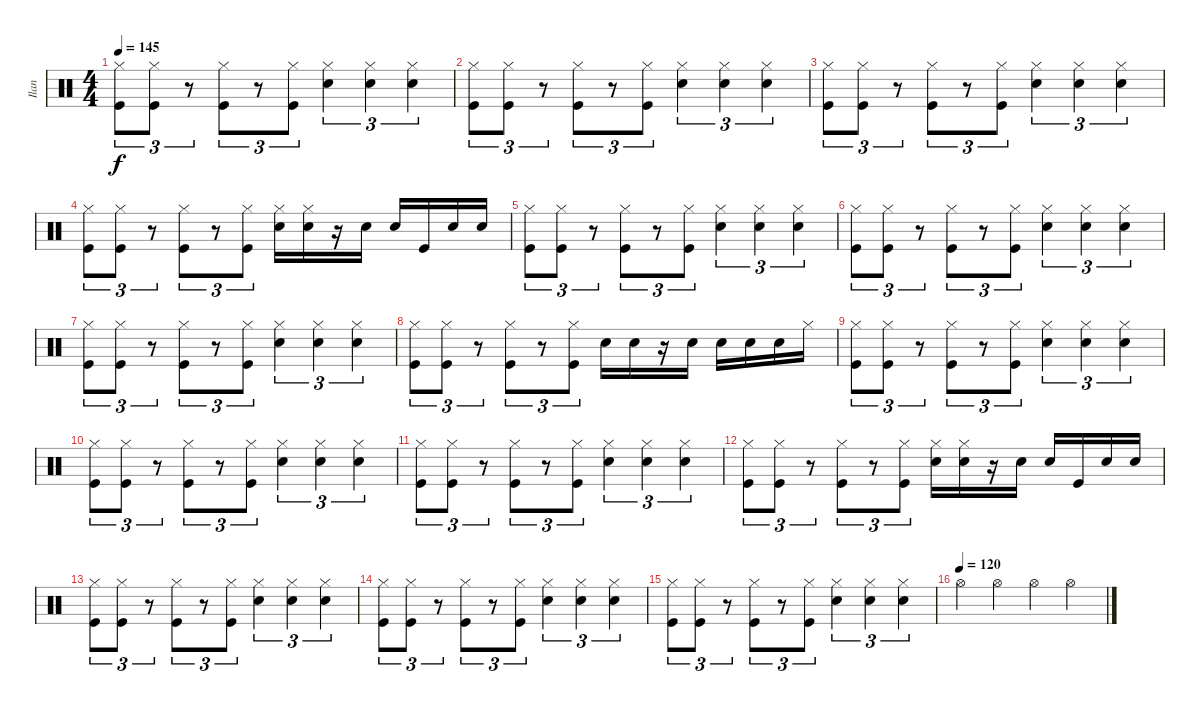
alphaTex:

\track ("Ilan" "Ilan") {instrument percussion}
\staff {score}
\articulation defaults
\ts (4 4)
\tempo 145
\clef neutral
\ks c
("Hi-Hat (closed)" "Kick (hit)").8{tu (3 2) dy f} ("Hi-Hat (closed)" "Kick (hit)").8{tu (3 2)} r.8{tu (3 2)} ("Hi-Hat (closed)" "Kick (hit)").8{tu (3 2)} r.8{tu (3 2)} ("Hi-Hat (closed)" "Kick (hit)").8{tu (3 2)} ("Hi-Hat (closed)" "Electric Snare (hit)").4{tu (3 2)} ("Hi-Hat (closed)" "Electric Snare (hit)").4{tu (3 2)} ("Hi-Hat (closed)" "Electric Snare (hit)").4{tu (3 2)} |
("Hi-Hat (closed)" "Kick (hit)").8{tu (3 2)} ("Hi-Hat (closed)" "Kick (hit)").8{tu (3 2)} r.8{tu (3 2)} ("Hi-Hat (closed)" "Kick (hit)").8{tu (3 2)} r.8{tu (3 2)} ("Hi-Hat (closed)" "Kick (hit)").8{tu (3 2)} ("Hi-Hat (closed)" "Electric Snare (hit)").4{tu (3 2)} ("Hi-Hat (closed)" "Electric Snare (hit)").4{tu (3 2)} ("Hi-Hat (closed)" "Electric Snare (hit)").4{tu (3 2)} |
("Hi-Hat (closed)" "Kick (hit)").8{tu (3 2)} ("Hi-Hat (closed)" "Kick (hit)").8{tu (3 2)} r.8{tu (3 2)} ("Hi-Hat (closed)" "Kick (hit)").8{tu (3 2)} r.8{tu (3 2)} ("Hi-Hat (closed)" "Kick (hit)").8{tu (3 2)} ("Hi-Hat (closed)" "Electric Snare (hit)").4{tu (3 2)} ("Hi-Hat (closed)" "Electric Snare (hit)").4{tu (3 2)} ("Hi-Hat (closed)" "Electric Snare (hit)").4{tu (3 2)} |
("Hi-Hat (closed)" "Kick (hit)").8{tu (3 2)} ("Hi-Hat (closed)" "Kick (hit)").8{tu (3 2)} r.8{tu (3 2)} ("Hi-Hat (closed)" "Kick (hit)").8{tu (3 2)} r.8{tu (3 2)} ("Hi-Hat (closed)" "Kick (hit)").8{tu (3 2)} ("Hi-Hat (closed)" "Electric Snare (hit)").16 ("Hi-Hat (closed)" "Electric Snare (hit)").16 r.16 "Electric Snare (hit)".16 "Electric Snare (hit)".16 "Kick (hit)".16 "Electric Snare (hit)".16 "Electric Snare (hit)".16 |
("Hi-Hat (closed)" "Kick (hit)").8{tu (3 2)} ("Hi-Hat (closed)" "Kick (hit)").8{tu (3 2)} r.8{tu (3 2)} ("Hi-Hat (closed)" "Kick (hit)").8{tu (3 2)} r.8{tu (3 2)} ("Hi-Hat (closed)" "Kick (hit)").8{tu (3 2)} ("Hi-Hat (closed)" "Electric Snare (hit)").4{tu (3 2)} ("Hi-Hat (closed)" "Electric Snare (hit)").4{tu (3 2)} ("Hi-Hat (closed)" "Electric Snare (hit)").4{tu (3 2)} |
("Hi-Hat (closed)" "Kick (hit)").8{tu (3 2)} ("Hi-Hat (closed)" "Kick (hit)").8{tu (3 2)} r.8{tu (3 2)} ("Hi-Hat (closed)" "Kick (hit)").8{tu (3 2)} r.8{tu (3 2)} ("Hi-Hat (closed)" "Kick (hit)").8{tu (3 2)} ("Hi-Hat (closed)" "Electric Snare (hit)").4{tu (3 2)} ("Hi-Hat (closed)" "Electric Snare (hit)").4{tu (3 2)} ("Hi-Hat (closed)" "Electric Snare (hit)").4{tu (3 2)} |
("Hi-Hat (closed)" "Kick (hit)").8{tu (3 2)} ("Hi-Hat (closed)" "Kick (hit)").8{tu (3 2)} r.8{tu (3 2)} ("Hi-Hat (closed)" "Kick (hit)").8{tu (3 2)} r.8{tu (3 2)} ("Hi-Hat (closed)" "Kick (hit)").8{tu (3 2)} ("Hi-Hat (closed)" "Electric Snare (hit)").4{tu (3 2)} ("Hi-Hat (closed)" "Electric Snare (hit)").4{tu (3 2)} ("Hi-Hat (closed)" "Electric Snare (hit)").4{tu (3 2)} |
("Hi-Hat (closed)" "Kick (hit)").8{tu (3 2)} ("Hi-Hat (closed)" "Kick (hit)").8{tu (3 2)} r.8{tu (3 2)} ("Hi-Hat (closed)" "Kick (hit)").8{tu (3 2)} r.8{tu (3 2)} ("Hi-Hat (closed)" "Kick (hit)").8{tu (3 2)} "Electric Snare (hit)".16 "Electric Snare (hit)".16 r.16 "Electric Snare (hit)".16 "Electric Snare (hit)".16 "Electric Snare (hit)".16 "Electric Snare (hit)".16 "Hi-Hat (closed)".16 |
("Hi-Hat (closed)" "Kick (hit)").8{tu (3 2)} ("Hi-Hat (closed)" "Kick (hit)").8{tu (3 2)} r.8{tu (3 2)} ("Hi-Hat (closed)" "Kick (hit)").8{tu (3 2)} r.8{tu (3 2)} ("Hi-Hat (closed)" "Kick (hit)").8{tu (3 2)} ("Hi-Hat (closed)" "Electric Snare (hit)").4{tu (3 2)} ("Hi-Hat (closed)" "Electric Snare (hit)").4{tu (3 2)} ("Hi-Hat (closed)" "Electric Snare (hit)").4{tu (3 2)} |
("Hi-Hat (closed)" "Kick (hit)").8{tu (3 2)} ("Hi-Hat (closed)" "Kick (hit)").8{tu (3 2)} r.8{tu (3 2)} ("Hi-Hat (closed)" "Kick (hit)").8{tu (3 2)} r.8{tu (3 2)} ("Hi-Hat (closed)" "Kick (hit)").8{tu (3 2)} ("Hi-Hat (closed)" "Electric Snare (hit)").4{tu (3 2)} ("Hi-Hat (closed)" "Electric Snare (hit)").4{tu (3 2)} ("Hi-Hat (closed)" "Electric Snare (hit)").4{tu (3 2)} |
("Hi-Hat (closed)" "Kick (hit)").8{tu (3 2)} ("Hi-Hat (closed)" "Kick (hit)").8{tu (3 2)} r.8{tu (3 2)} ("Hi-Hat (closed)" "Kick (hit)").8{tu (3 2)} r.8{tu (3 2)} ("Hi-Hat (closed)" "Kick (hit)").8{tu (3 2)} ("Hi-Hat (closed)" "Electric Snare (hit)").4{tu (3 2)} ("Hi-Hat (closed)" "Electric Snare (hit)").4{tu (3 2)} ("Hi-Hat (closed)" "Electric Snare (hit)").4{tu (3 2)} |
("Hi-Hat (closed)" "Kick (hit)").8{tu (3 2)} ("Hi-Hat (closed)" "Kick (hit)").8{tu (3 2)} r.8{tu (3 2)} ("Hi-Hat (closed)" "Kick (hit)").8{tu (3 2)} r.8{tu (3 2)} ("Hi-Hat (closed)" "Kick (hit)").8{tu (3 2)} ("Hi-Hat (closed)" "Electric Snare (hit)").16 ("Hi-Hat (closed)" "Electric Snare (hit)").16 r.16 "Electric Snare (hit)".16 "Electric Snare (hit)".16 "Kick (hit)".16 "Electric Snare (hit)".16 "Electric Snare (hit)".16 |
("Hi-Hat (closed)" "Kick (hit)").8{tu (3 2)} ("Hi-Hat (closed)" "Kick (hit)").8{tu (3 2)} r.8{tu (3 2)} ("Hi-Hat (closed)" "Kick (hit)").8{tu (3 2)} r.8{tu (3 2)} ("Hi-Hat (closed)" "Kick (hit)").8{tu (3 2)} ("Hi-Hat (closed)" "Electric Snare (hit)").4{tu (3 2)} ("Hi-Hat (closed)" "Electric Snare (hit)").4{tu (3 2)} ("Hi-Hat (closed)" "Electric Snare (hit)").4{tu (3 2)} |
("Hi-Hat (closed)" "Kick (hit)").8{tu (3 2)} ("Hi-Hat (closed)" "Kick (hit)").8{tu (3 2)} r.8{tu (3 2)} ("Hi-Hat (closed)" "Kick (hit)").8{tu (3 2)} r.8{tu (3 2)} ("Hi-Hat (closed)" "Kick (hit)").8{tu (3 2)} ("Hi-Hat (closed)" "Electric Snare (hit)").4{tu (3 2)} ("Hi-Hat (closed)" "Electric Snare (hit)").4{tu (3 2)} ("Hi-Hat (closed)" "Electric Snare (hit)").4{tu (3 2)} |
("Hi-Hat (closed)" "Kick (hit)").8{tu (3 2)} ("Hi-Hat (closed)" "Kick (hit)").8{tu (3 2)} r.8{tu (3 2)} ("Hi-Hat (closed)" "Kick (hit)").8{tu (3 2)} r.8{tu (3 2)} ("Hi-Hat (closed)" "Kick (hit)").8{tu (3 2)} ("Hi-Hat (closed)" "Electric Snare (hit)").4{tu (3 2)} ("Hi-Hat (closed)" "Electric Snare (hit)").4{tu (3 2)} ("Hi-Hat (closed)" "Electric Snare (hit)").4{tu (3 2)} |
\tempo (120)
"Hi-Hat (open)".4 "Hi-Hat (open)".4 "Hi-Hat (open)".4 "Hi-Hat (open)".4
